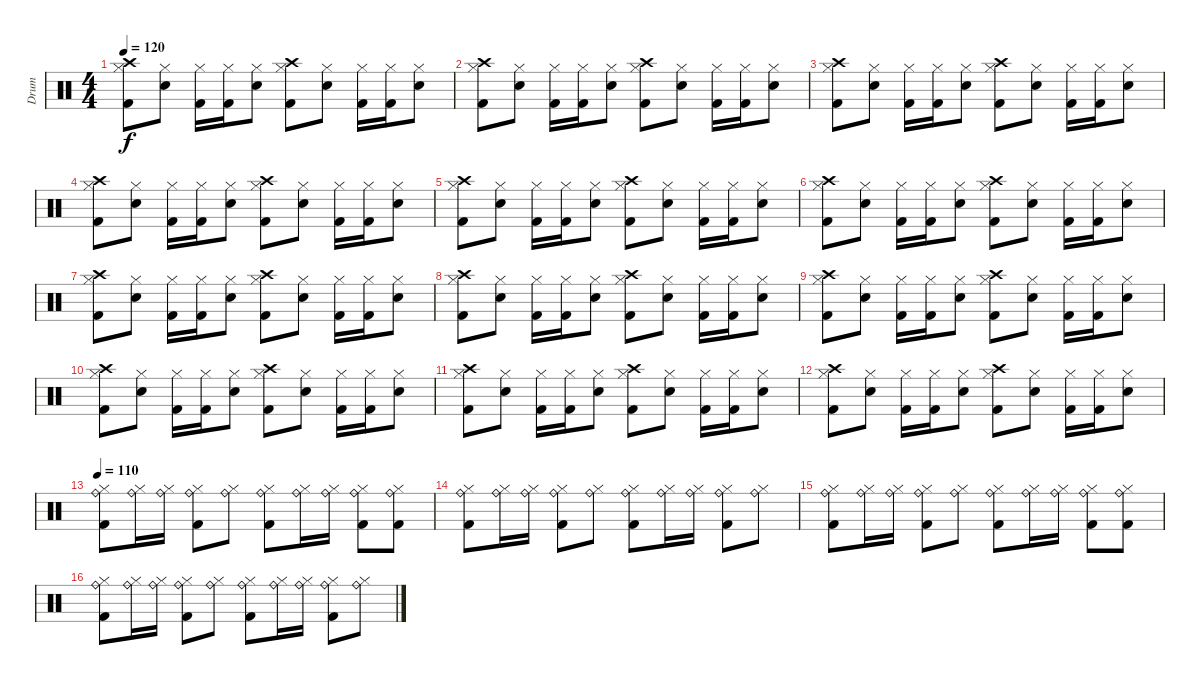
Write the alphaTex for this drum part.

\track ("Drum" "Drum") {instrument percussion}
\staff {score}
\articulation defaults
\ts (4 4)
\tempo 120
\clef neutral
\ks c
("Kick (hit) 2" "Crash high (hit)" "Hi-Hat (closed)").8{dy f} ("Electric Snare (hit)" "Hi-Hat (closed)").8 ("Kick (hit) 2" "Hi-Hat (closed)").16 ("Kick (hit) 2" "Hi-Hat (closed)").16 ("Electric Snare (hit)" "Hi-Hat (closed)").8 ("Kick (hit) 2" "Crash high (hit)" "Hi-Hat (closed)").8 ("Electric Snare (hit)" "Hi-Hat (closed)").8 ("Kick (hit) 2" "Hi-Hat (closed)").16 ("Kick (hit) 2" "Hi-Hat (closed)").16 ("Electric Snare (hit)" "Hi-Hat (closed)").8 |
("Kick (hit) 2" "Crash high (hit)" "Hi-Hat (closed)").8 ("Electric Snare (hit)" "Hi-Hat (closed)").8 ("Kick (hit) 2" "Hi-Hat (closed)").16 ("Kick (hit) 2" "Hi-Hat (closed)").16 ("Electric Snare (hit)" "Hi-Hat (closed)").8 ("Kick (hit) 2" "Crash high (hit)" "Hi-Hat (closed)").8 ("Electric Snare (hit)" "Hi-Hat (closed)").8 ("Kick (hit) 2" "Hi-Hat (closed)").16 ("Kick (hit) 2" "Hi-Hat (closed)").16 ("Electric Snare (hit)" "Hi-Hat (closed)").8 |
("Kick (hit) 2" "Crash high (hit)" "Hi-Hat (closed)").8 ("Electric Snare (hit)" "Hi-Hat (closed)").8 ("Kick (hit) 2" "Hi-Hat (closed)").16 ("Kick (hit) 2" "Hi-Hat (closed)").16 ("Electric Snare (hit)" "Hi-Hat (closed)").8 ("Kick (hit) 2" "Crash high (hit)" "Hi-Hat (closed)").8 ("Electric Snare (hit)" "Hi-Hat (closed)").8 ("Kick (hit) 2" "Hi-Hat (closed)").16 ("Kick (hit) 2" "Hi-Hat (closed)").16 ("Electric Snare (hit)" "Hi-Hat (closed)").8 |
("Kick (hit) 2" "Crash high (hit)" "Hi-Hat (closed)").8 ("Electric Snare (hit)" "Hi-Hat (closed)").8 ("Kick (hit) 2" "Hi-Hat (closed)").16 ("Kick (hit) 2" "Hi-Hat (closed)").16 ("Electric Snare (hit)" "Hi-Hat (closed)").8 ("Kick (hit) 2" "Crash high (hit)" "Hi-Hat (closed)").8 ("Electric Snare (hit)" "Hi-Hat (closed)").8 ("Kick (hit) 2" "Hi-Hat (closed)").16 ("Kick (hit) 2" "Hi-Hat (closed)").16 ("Electric Snare (hit)" "Hi-Hat (closed)").8 |
("Kick (hit) 2" "Crash high (hit)" "Hi-Hat (closed)").8 ("Electric Snare (hit)" "Hi-Hat (closed)").8 ("Kick (hit) 2" "Hi-Hat (closed)").16 ("Kick (hit) 2" "Hi-Hat (closed)").16 ("Electric Snare (hit)" "Hi-Hat (closed)").8 ("Kick (hit) 2" "Crash high (hit)" "Hi-Hat (closed)").8 ("Electric Snare (hit)" "Hi-Hat (closed)").8 ("Kick (hit) 2" "Hi-Hat (closed)").16 ("Kick (hit) 2" "Hi-Hat (closed)").16 ("Electric Snare (hit)" "Hi-Hat (closed)").8 |
("Kick (hit) 2" "Crash high (hit)" "Hi-Hat (closed)").8 ("Electric Snare (hit)" "Hi-Hat (closed)").8 ("Kick (hit) 2" "Hi-Hat (closed)").16 ("Kick (hit) 2" "Hi-Hat (closed)").16 ("Electric Snare (hit)" "Hi-Hat (closed)").8 ("Kick (hit) 2" "Crash high (hit)" "Hi-Hat (closed)").8 ("Electric Snare (hit)" "Hi-Hat (closed)").8 ("Kick (hit) 2" "Hi-Hat (closed)").16 ("Kick (hit) 2" "Hi-Hat (closed)").16 ("Electric Snare (hit)" "Hi-Hat (closed)").8 |
("Kick (hit) 2" "Crash high (hit)" "Hi-Hat (closed)").8 ("Electric Snare (hit)" "Hi-Hat (closed)").8 ("Kick (hit) 2" "Hi-Hat (closed)").16 ("Kick (hit) 2" "Hi-Hat (closed)").16 ("Electric Snare (hit)" "Hi-Hat (closed)").8 ("Kick (hit) 2" "Crash high (hit)" "Hi-Hat (closed)").8 ("Electric Snare (hit)" "Hi-Hat (closed)").8 ("Kick (hit) 2" "Hi-Hat (closed)").16 ("Kick (hit) 2" "Hi-Hat (closed)").16 ("Electric Snare (hit)" "Hi-Hat (closed)").8 |
("Kick (hit) 2" "Crash high (hit)" "Hi-Hat (closed)").8 ("Electric Snare (hit)" "Hi-Hat (closed)").8 ("Kick (hit) 2" "Hi-Hat (closed)").16 ("Kick (hit) 2" "Hi-Hat (closed)").16 ("Electric Snare (hit)" "Hi-Hat (closed)").8 ("Kick (hit) 2" "Crash high (hit)" "Hi-Hat (closed)").8 ("Electric Snare (hit)" "Hi-Hat (closed)").8 ("Kick (hit) 2" "Hi-Hat (closed)").16 ("Kick (hit) 2" "Hi-Hat (closed)").16 ("Electric Snare (hit)" "Hi-Hat (closed)").8 |
("Kick (hit) 2" "Crash high (hit)" "Hi-Hat (closed)").8 ("Electric Snare (hit)" "Hi-Hat (closed)").8 ("Kick (hit) 2" "Hi-Hat (closed)").16 ("Kick (hit) 2" "Hi-Hat (closed)").16 ("Electric Snare (hit)" "Hi-Hat (closed)").8 ("Kick (hit) 2" "Crash high (hit)" "Hi-Hat (closed)").8 ("Electric Snare (hit)" "Hi-Hat (closed)").8 ("Kick (hit) 2" "Hi-Hat (closed)").16 ("Kick (hit) 2" "Hi-Hat (closed)").16 ("Electric Snare (hit)" "Hi-Hat (closed)").8 |
("Kick (hit) 2" "Crash high (hit)" "Hi-Hat (closed)").8 ("Electric Snare (hit)" "Hi-Hat (closed)").8 ("Kick (hit) 2" "Hi-Hat (closed)").16 ("Kick (hit) 2" "Hi-Hat (closed)").16 ("Electric Snare (hit)" "Hi-Hat (closed)").8 ("Kick (hit) 2" "Crash high (hit)" "Hi-Hat (closed)").8 ("Electric Snare (hit)" "Hi-Hat (closed)").8 ("Kick (hit) 2" "Hi-Hat (closed)").16 ("Kick (hit) 2" "Hi-Hat (closed)").16 ("Electric Snare (hit)" "Hi-Hat (closed)").8 |
("Kick (hit) 2" "Crash high (hit)" "Hi-Hat (closed)").8 ("Electric Snare (hit)" "Hi-Hat (closed)").8 ("Kick (hit) 2" "Hi-Hat (closed)").16 ("Kick (hit) 2" "Hi-Hat (closed)").16 ("Electric Snare (hit)" "Hi-Hat (closed)").8 ("Kick (hit) 2" "Crash high (hit)" "Hi-Hat (closed)").8 ("Electric Snare (hit)" "Hi-Hat (closed)").8 ("Kick (hit) 2" "Hi-Hat (closed)").16 ("Kick (hit) 2" "Hi-Hat (closed)").16 ("Electric Snare (hit)" "Hi-Hat (closed)").8 |
("Kick (hit) 2" "Crash high (hit)" "Hi-Hat (closed)").8 ("Electric Snare (hit)" "Hi-Hat (closed)").8 ("Kick (hit) 2" "Hi-Hat (closed)").16 ("Kick (hit) 2" "Hi-Hat (closed)").16 ("Electric Snare (hit)" "Hi-Hat (closed)").8 ("Kick (hit) 2" "Crash high (hit)" "Hi-Hat (closed)").8 ("Electric Snare (hit)" "Hi-Hat (closed)").8 ("Kick (hit) 2" "Hi-Hat (closed)").16 ("Kick (hit) 2" "Hi-Hat (closed)").16 ("Electric Snare (hit)" "Hi-Hat (closed)").8 |
\tempo 110
("Ride (bell)" "Hi-Hat (closed)" "Kick (hit) 2").8 ("Ride (bell)" "Hi-Hat (closed)").16 ("Ride (bell)" "Hi-Hat (closed)").16 ("Ride (bell)" "Hi-Hat (closed)" "Kick (hit) 2").8 ("Ride (bell)" "Hi-Hat (closed)").8 ("Ride (bell)" "Hi-Hat (closed)" "Kick (hit) 2").8 ("Ride (bell)" "Hi-Hat (closed)").16 ("Ride (bell)" "Hi-Hat (closed)").16 ("Ride (bell)" "Hi-Hat (closed)" "Kick (hit) 2").8 ("Ride (bell)" "Hi-Hat (closed)" "Kick (hit) 2").8 |
("Ride (bell)" "Hi-Hat (closed)" "Kick (hit) 2").8 ("Ride (bell)" "Hi-Hat (closed)").16 ("Ride (bell)" "Hi-Hat (closed)").16 ("Ride (bell)" "Hi-Hat (closed)" "Kick (hit) 2").8 ("Ride (bell)" "Hi-Hat (closed)").8 ("Ride (bell)" "Hi-Hat (closed)" "Kick (hit) 2").8 ("Ride (bell)" "Hi-Hat (closed)").16 ("Ride (bell)" "Hi-Hat (closed)").16 ("Ride (bell)" "Hi-Hat (closed)" "Kick (hit) 2").8 ("Ride (bell)" "Hi-Hat (closed)").8 |
("Ride (bell)" "Hi-Hat (closed)" "Kick (hit) 2").8 ("Ride (bell)" "Hi-Hat (closed)").16 ("Ride (bell)" "Hi-Hat (closed)").16 ("Ride (bell)" "Hi-Hat (closed)" "Kick (hit) 2").8 ("Ride (bell)" "Hi-Hat (closed)").8 ("Ride (bell)" "Hi-Hat (closed)" "Kick (hit) 2").8 ("Ride (bell)" "Hi-Hat (closed)").16 ("Ride (bell)" "Hi-Hat (closed)").16 ("Ride (bell)" "Hi-Hat (closed)" "Kick (hit) 2").8 ("Ride (bell)" "Hi-Hat (closed)" "Kick (hit) 2").8 |
("Ride (bell)" "Hi-Hat (closed)" "Kick (hit) 2").8 ("Ride (bell)" "Hi-Hat (closed)").16 ("Ride (bell)" "Hi-Hat (closed)").16 ("Ride (bell)" "Hi-Hat (closed)" "Kick (hit) 2").8 ("Ride (bell)" "Hi-Hat (closed)").8 ("Ride (bell)" "Hi-Hat (closed)" "Kick (hit) 2").8 ("Ride (bell)" "Hi-Hat (closed)").16 ("Ride (bell)" "Hi-Hat (closed)").16 ("Ride (bell)" "Hi-Hat (closed)" "Kick (hit) 2").8 ("Ride (bell)" "Hi-Hat (closed)").8
